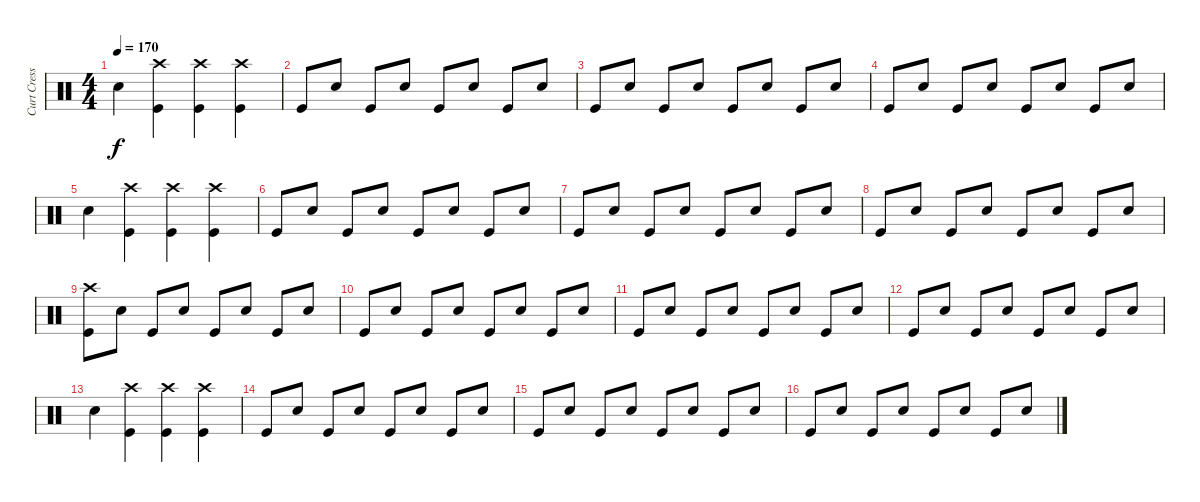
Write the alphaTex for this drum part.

\track ("Curt Cress" "Curt Cress") {instrument percussion}
\staff {score}
\articulation defaults
\ts (4 4)
\tempo 170
\clef neutral
\ks c "Electric Snare (hit)".4{dy f}
("Kick (hit)" "Crash high (hit)").4 ("Kick (hit)" "Crash high (hit)").4 ("Kick (hit)" "Crash high (hit)").4 |
"Kick (hit)".8 "Snare (hit) 2".8 "Kick (hit)".8 "Snare (hit) 2".8 "Kick (hit)".8 "Snare (hit) 2".8 "Kick (hit)".8 "Snare (hit) 2".8 |
"Kick (hit)".8 "Snare (hit) 2".8 "Kick (hit)".8 "Snare (hit) 2".8 "Kick (hit)".8 "Snare (hit) 2".8 "Kick (hit)".8 "Snare (hit) 2".8 |
"Kick (hit)".8 "Snare (hit) 2".8 "Kick (hit)".8 "Snare (hit) 2".8 "Kick (hit)".8 "Snare (hit) 2".8 "Kick (hit)".8 "Snare (hit) 2".8 |
"Electric Snare (hit)".4 ("Kick (hit)" "Crash high (hit)").4 ("Kick (hit)" "Crash high (hit)").4 ("Kick (hit)" "Crash high (hit)").4 |
"Kick (hit)".8 "Snare (hit) 2".8 "Kick (hit)".8 "Snare (hit) 2".8 "Kick (hit)".8 "Snare (hit) 2".8 "Kick (hit)".8 "Snare (hit) 2".8 |
"Kick (hit)".8 "Snare (hit) 2".8 "Kick (hit)".8 "Snare (hit) 2".8 "Kick (hit)".8 "Snare (hit) 2".8 "Kick (hit)".8 "Snare (hit) 2".8 |
"Kick (hit)".8 "Snare (hit) 2".8 "Kick (hit)".8 "Snare (hit) 2".8 "Kick (hit)".8 "Snare (hit) 2".8 "Kick (hit)".8 "Snare (hit) 2".8 |
("Kick (hit)" "Crash high (hit)").8 "Snare (hit) 2".8 "Kick (hit)".8 "Snare (hit) 2".8 "Kick (hit)".8 "Snare (hit) 2".8 "Kick (hit)".8 "Snare (hit) 2".8 |
"Kick (hit)".8 "Snare (hit) 2".8 "Kick (hit)".8 "Snare (hit) 2".8 "Kick (hit)".8 "Snare (hit) 2".8 "Kick (hit)".8 "Snare (hit) 2".8 |
"Kick (hit)".8 "Snare (hit) 2".8 "Kick (hit)".8 "Snare (hit) 2".8 "Kick (hit)".8 "Snare (hit) 2".8 "Kick (hit)".8 "Snare (hit) 2".8 |
"Kick (hit)".8 "Snare (hit) 2".8 "Kick (hit)".8 "Snare (hit) 2".8 "Kick (hit)".8 "Snare (hit) 2".8 "Kick (hit)".8 "Snare (hit) 2".8 |
"Electric Snare (hit)".4 ("Kick (hit)" "Crash high (hit)").4 ("Kick (hit)" "Crash high (hit)").4 ("Kick (hit)" "Crash high (hit)").4 |
"Kick (hit)".8 "Snare (hit) 2".8 "Kick (hit)".8 "Snare (hit) 2".8 "Kick (hit)".8 "Snare (hit) 2".8 "Kick (hit)".8 "Snare (hit) 2".8 |
"Kick (hit)".8 "Snare (hit) 2".8 "Kick (hit)".8 "Snare (hit) 2".8 "Kick (hit)".8 "Snare (hit) 2".8 "Kick (hit)".8 "Snare (hit) 2".8 |
"Kick (hit)".8 "Snare (hit) 2".8 "Kick (hit)".8 "Snare (hit) 2".8 "Kick (hit)".8 "Snare (hit) 2".8 "Kick (hit)".8 "Snare (hit) 2".8
